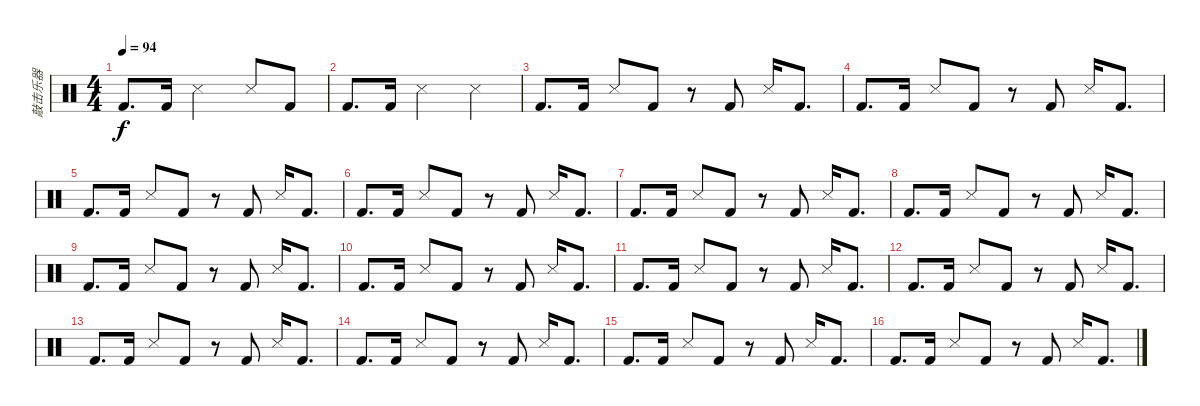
\track ("敲击乐器" "敲击乐器") {instrument percussion}
\staff {score}
\articulation defaults
\ts (4 4)
\tempo 94
\clef neutral
\ks c "Kick (hit) 2".8{d dy f} "Kick (hit) 2".16 "Snare (side stick) 3".2 "Snare (side stick) 3".8 "Kick (hit) 2".8
|
"Kick (hit) 2".8{d} "Kick (hit) 2".16 "Snare (side stick) 3".2 "Snare (side stick) 3".4 |
"Kick (hit) 2".8{d} "Kick (hit) 2".16 "Snare (side stick) 3".8 "Kick (hit) 2".8 r.8 "Kick (hit) 2".8 "Snare (side stick) 3".16 "Kick (hit) 2".8{d} |
"Kick (hit) 2".8{d} "Kick (hit) 2".16 "Snare (side stick) 3".8 "Kick (hit) 2".8 r.8 "Kick (hit) 2".8 "Snare (side stick) 3".16 "Kick (hit) 2".8{d} |
"Kick (hit) 2".8{d} "Kick (hit) 2".16 "Snare (side stick) 3".8 "Kick (hit) 2".8 r.8 "Kick (hit) 2".8 "Snare (side stick) 3".16 "Kick (hit) 2".8{d} |
"Kick (hit) 2".8{d} "Kick (hit) 2".16 "Snare (side stick) 3".8 "Kick (hit) 2".8 r.8 "Kick (hit) 2".8 "Snare (side stick) 3".16 "Kick (hit) 2".8{d} |
"Kick (hit) 2".8{d} "Kick (hit) 2".16 "Snare (side stick) 3".8 "Kick (hit) 2".8 r.8 "Kick (hit) 2".8 "Snare (side stick) 3".16 "Kick (hit) 2".8{d} |
"Kick (hit) 2".8{d} "Kick (hit) 2".16 "Snare (side stick) 3".8 "Kick (hit) 2".8 r.8 "Kick (hit) 2".8 "Snare (side stick) 3".16 "Kick (hit) 2".8{d} |
"Kick (hit) 2".8{d} "Kick (hit) 2".16 "Snare (side stick) 3".8 "Kick (hit) 2".8 r.8 "Kick (hit) 2".8 "Snare (side stick) 3".16 "Kick (hit) 2".8{d} |
"Kick (hit) 2".8{d} "Kick (hit) 2".16 "Snare (side stick) 3".8 "Kick (hit) 2".8 r.8 "Kick (hit) 2".8 "Snare (side stick) 3".16 "Kick (hit) 2".8{d} |
"Kick (hit) 2".8{d} "Kick (hit) 2".16 "Snare (side stick) 3".8 "Kick (hit) 2".8 r.8 "Kick (hit) 2".8 "Snare (side stick) 3".16 "Kick (hit) 2".8{d} |
"Kick (hit) 2".8{d} "Kick (hit) 2".16 "Snare (side stick) 3".8 "Kick (hit) 2".8 r.8 "Kick (hit) 2".8 "Snare (side stick) 3".16 "Kick (hit) 2".8{d} |
"Kick (hit) 2".8{d} "Kick (hit) 2".16 "Snare (side stick) 3".8 "Kick (hit) 2".8 r.8 "Kick (hit) 2".8 "Snare (side stick) 3".16 "Kick (hit) 2".8{d} |
"Kick (hit) 2".8{d} "Kick (hit) 2".16 "Snare (side stick) 3".8 "Kick (hit) 2".8 r.8 "Kick (hit) 2".8 "Snare (side stick) 3".16 "Kick (hit) 2".8{d} |
"Kick (hit) 2".8{d} "Kick (hit) 2".16 "Snare (side stick) 3".8 "Kick (hit) 2".8 r.8 "Kick (hit) 2".8 "Snare (side stick) 3".16 "Kick (hit) 2".8{d} |
"Kick (hit) 2".8{d} "Kick (hit) 2".16 "Snare (side stick) 3".8 "Kick (hit) 2".8 r.8 "Kick (hit) 2".8 "Snare (side stick) 3".16 "Kick (hit) 2".8{d}
